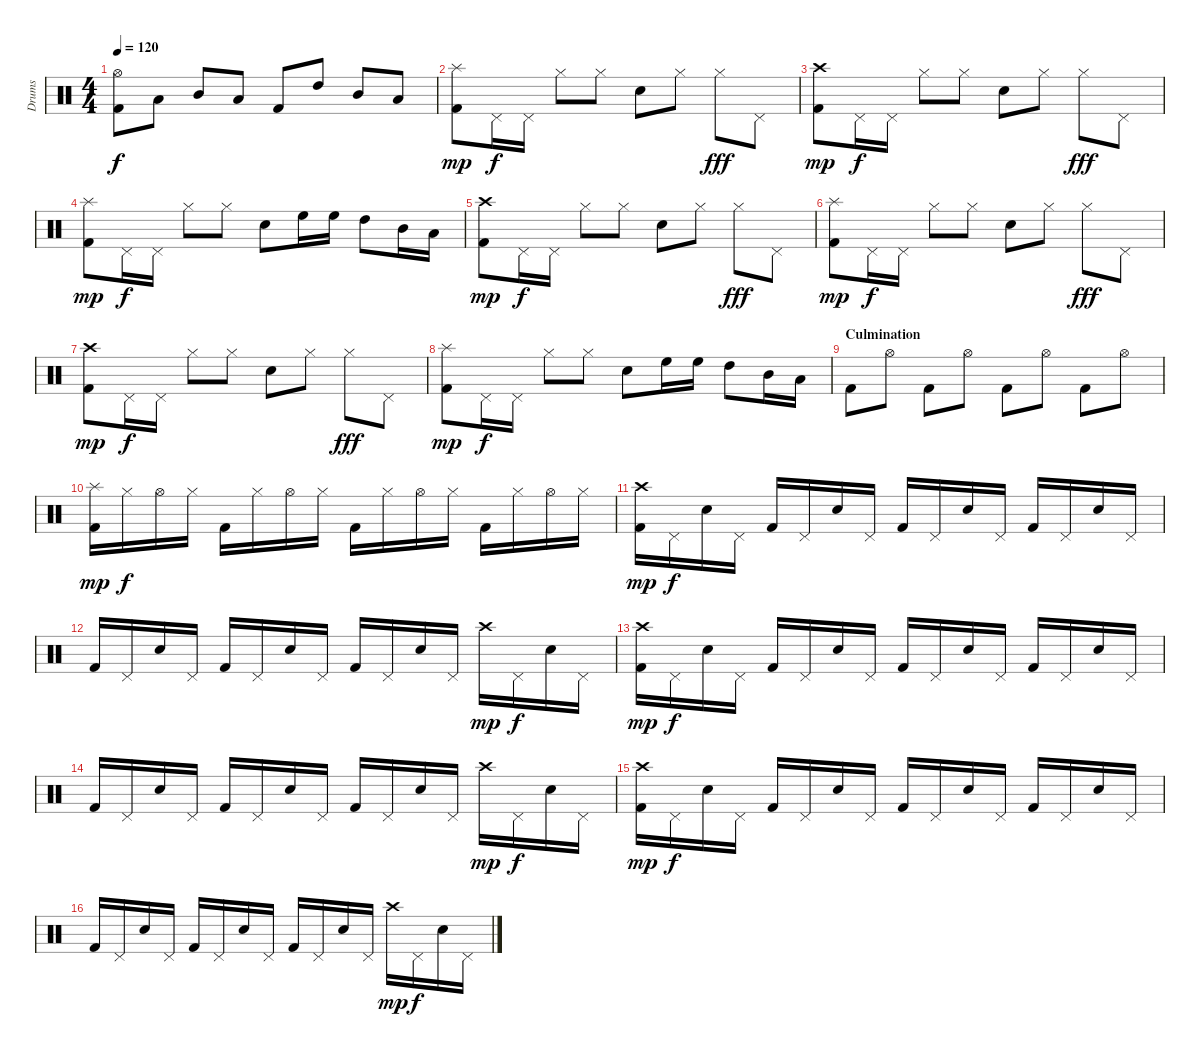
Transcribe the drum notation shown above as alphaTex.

\track ("Drums" "Drums") {instrument percussion}
\staff {score}
\articulation defaults
\ts (4 4)
\tempo 120
\clef neutral
\ks c
("Hi-Hat (open)" "Kick (hit) 2").8{dy f} "Low Tom (hit)".8 "Mid Tom (hit)".8 "Low Tom (hit)".8 "Kick (hit) 2".8 "High Tom (hit)".8 "Mid Tom (hit)".8 "Low Tom (hit)".8 |
("Kick (hit) 2" "Splash (hit)").8{dy mp} "Pedal Hi-Hat (hit)".16{dy f} "Pedal Hi-Hat (hit)".16 "Hi-Hat (closed)".8 "Hi-Hat (closed)".8 "Electric Snare (hit)".8 "Hi-Hat (closed)".8 "Hi-Hat (closed)".8{dy fff} "Pedal Hi-Hat (hit)".8 |
("Kick (hit) 2" "Crash high (hit)").8{dy mp} "Pedal Hi-Hat (hit)".16{dy f} "Pedal Hi-Hat (hit)".16 "Hi-Hat (closed)".8 "Hi-Hat (closed)".8 "Electric Snare (hit)".8 "Hi-Hat (closed)".8 "Hi-Hat (closed)".8{dy fff} "Pedal Hi-Hat (hit)".8 |
("Kick (hit) 2" "Splash (hit)").8{dy mp} "Pedal Hi-Hat (hit)".16{dy f} "Pedal Hi-Hat (hit)".16 "Hi-Hat (closed)".8 "Hi-Hat (closed)".8 "Electric Snare (hit)".8 "High Floor Tom (hit)".16 "High Floor Tom (hit)".16 "High Tom (hit)".8 "Mid Tom (hit)".16 "Low Tom (hit)".16 |
("Kick (hit) 2" "Crash high (hit)").8{dy mp} "Pedal Hi-Hat (hit)".16{dy f} "Pedal Hi-Hat (hit)".16 "Hi-Hat (closed)".8 "Hi-Hat (closed)".8 "Electric Snare (hit)".8 "Hi-Hat (closed)".8 "Hi-Hat (closed)".8{dy fff} "Pedal Hi-Hat (hit)".8 |
("Kick (hit) 2" "Splash (hit)").8{dy mp} "Pedal Hi-Hat (hit)".16{dy f} "Pedal Hi-Hat (hit)".16 "Hi-Hat (closed)".8 "Hi-Hat (closed)".8 "Electric Snare (hit)".8 "Hi-Hat (closed)".8 "Hi-Hat (closed)".8{dy fff} "Pedal Hi-Hat (hit)".8 |
("Kick (hit) 2" "Crash high (hit)").8{dy mp} "Pedal Hi-Hat (hit)".16{dy f} "Pedal Hi-Hat (hit)".16 "Hi-Hat (closed)".8 "Hi-Hat (closed)".8 "Electric Snare (hit)".8 "Hi-Hat (closed)".8 "Hi-Hat (closed)".8{dy fff} "Pedal Hi-Hat (hit)".8 |
("Kick (hit) 2" "Splash (hit)").8{dy mp} "Pedal Hi-Hat (hit)".16{dy f} "Pedal Hi-Hat (hit)".16 "Hi-Hat (closed)".8 "Hi-Hat (closed)".8 "Electric Snare (hit)".8 "High Floor Tom (hit)".16 "High Floor Tom (hit)".16 "High Tom (hit)".8 "Mid Tom (hit)".16 "Low Tom (hit)".16 |
\section ("" "Culmination")
"Kick (hit) 2".8 "Hi-Hat (open)".8 "Kick (hit) 2".8 "Hi-Hat (open)".8 "Kick (hit) 2".8 "Hi-Hat (open)".8 "Kick (hit) 2".8 "Hi-Hat (open)".8 |
("Kick (hit) 2" "Splash (hit)").16{dy mp} "Hi-Hat (closed)".16{dy f} "Hi-Hat (open)".16 "Hi-Hat (closed)".16 "Kick (hit) 2".16 "Hi-Hat (closed)".16 "Hi-Hat (open)".16 "Hi-Hat (closed)".16 "Kick (hit) 2".16 "Hi-Hat (closed)".16 "Hi-Hat (open)".16 "Hi-Hat (closed)".16 "Kick (hit) 2".16 "Hi-Hat (closed)".16 "Hi-Hat (open)".16 "Hi-Hat (closed)".16 |
("Kick (hit) 2" "Crash high (hit)").16{dy mp} "Pedal Hi-Hat (hit)".16{dy f} "Electric Snare (hit)".16 "Pedal Hi-Hat (hit)".16 "Kick (hit) 2".16 "Pedal Hi-Hat (hit)".16 "Electric Snare (hit)".16 "Pedal Hi-Hat (hit)".16 "Kick (hit) 2".16 "Pedal Hi-Hat (hit)".16 "Electric Snare (hit)".16 "Pedal Hi-Hat (hit)".16 "Kick (hit) 2".16 "Pedal Hi-Hat (hit)".16 "Electric Snare (hit)".16 "Pedal Hi-Hat (hit)".16 |
"Kick (hit) 2".16 "Pedal Hi-Hat (hit)".16 "Electric Snare (hit)".16 "Pedal Hi-Hat (hit)".16 "Kick (hit) 2".16 "Pedal Hi-Hat (hit)".16 "Electric Snare (hit)".16 "Pedal Hi-Hat (hit)".16 "Kick (hit) 2".16 "Pedal Hi-Hat (hit)".16 "Electric Snare (hit)".16 "Pedal Hi-Hat (hit)".16 "Crash high (hit)".16{dy mp} "Pedal Hi-Hat (hit)".16{dy f} "Electric Snare (hit)".16 "Pedal Hi-Hat (hit)".16 |
("Kick (hit) 2" "Crash high (hit)").16{dy mp} "Pedal Hi-Hat (hit)".16{dy f} "Electric Snare (hit)".16 "Pedal Hi-Hat (hit)".16 "Kick (hit) 2".16 "Pedal Hi-Hat (hit)".16 "Electric Snare (hit)".16 "Pedal Hi-Hat (hit)".16 "Kick (hit) 2".16 "Pedal Hi-Hat (hit)".16 "Electric Snare (hit)".16 "Pedal Hi-Hat (hit)".16 "Kick (hit) 2".16 "Pedal Hi-Hat (hit)".16 "Electric Snare (hit)".16 "Pedal Hi-Hat (hit)".16 |
"Kick (hit) 2".16 "Pedal Hi-Hat (hit)".16 "Electric Snare (hit)".16 "Pedal Hi-Hat (hit)".16 "Kick (hit) 2".16 "Pedal Hi-Hat (hit)".16 "Electric Snare (hit)".16 "Pedal Hi-Hat (hit)".16 "Kick (hit) 2".16 "Pedal Hi-Hat (hit)".16 "Electric Snare (hit)".16 "Pedal Hi-Hat (hit)".16 "Crash high (hit)".16{dy mp} "Pedal Hi-Hat (hit)".16{dy f} "Electric Snare (hit)".16 "Pedal Hi-Hat (hit)".16 |
("Kick (hit) 2" "Crash high (hit)").16{dy mp} "Pedal Hi-Hat (hit)".16{dy f} "Electric Snare (hit)".16 "Pedal Hi-Hat (hit)".16 "Kick (hit) 2".16 "Pedal Hi-Hat (hit)".16 "Electric Snare (hit)".16 "Pedal Hi-Hat (hit)".16 "Kick (hit) 2".16 "Pedal Hi-Hat (hit)".16 "Electric Snare (hit)".16 "Pedal Hi-Hat (hit)".16 "Kick (hit) 2".16 "Pedal Hi-Hat (hit)".16 "Electric Snare (hit)".16 "Pedal Hi-Hat (hit)".16 |
"Kick (hit) 2".16 "Pedal Hi-Hat (hit)".16 "Electric Snare (hit)".16 "Pedal Hi-Hat (hit)".16 "Kick (hit) 2".16 "Pedal Hi-Hat (hit)".16 "Electric Snare (hit)".16 "Pedal Hi-Hat (hit)".16 "Kick (hit) 2".16 "Pedal Hi-Hat (hit)".16 "Electric Snare (hit)".16 "Pedal Hi-Hat (hit)".16 "Crash high (hit)".16{dy mp} "Pedal Hi-Hat (hit)".16{dy f} "Electric Snare (hit)".16 "Pedal Hi-Hat (hit)".16
